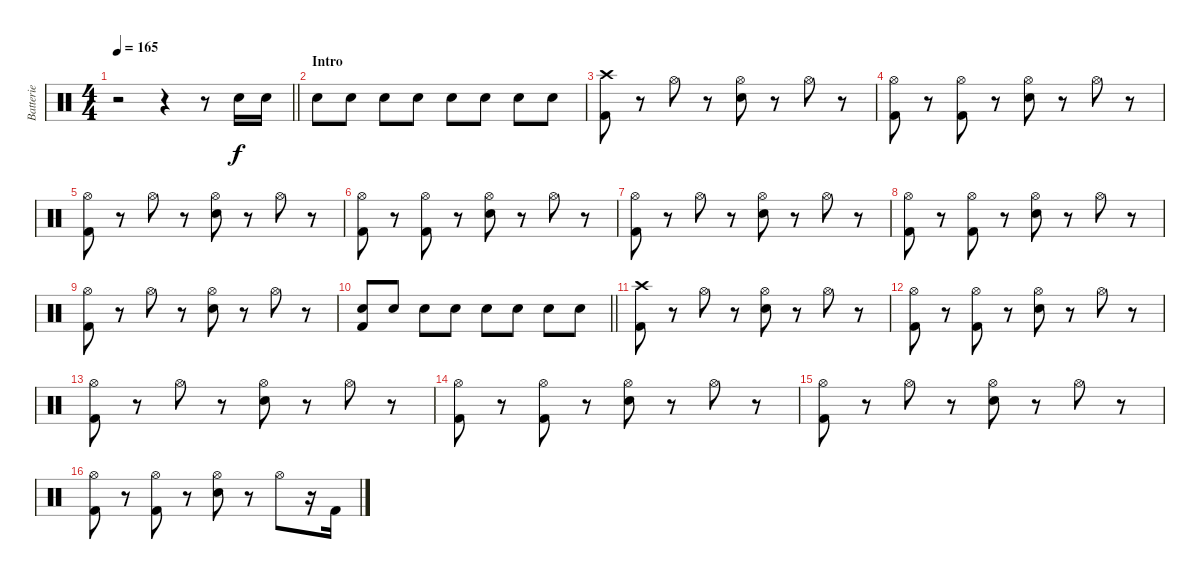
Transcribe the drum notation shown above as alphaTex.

\track ("Batterie" "Batterie") {instrument percussion}
\staff {score}
\articulation defaults
\ts (4 4)
\tempo 165
\clef neutral
\barLineRight lightlight
\ks c
r.2{dy f} r.4 r.8 "Electric Snare (hit)".16 "Electric Snare (hit)".16 |
\section ("" "Intro")
"Electric Snare (hit)".8 "Electric Snare (hit)".8 "Electric Snare (hit)".8 "Electric Snare (hit)".8 "Electric Snare (hit)".8 "Electric Snare (hit)".8 "Electric Snare (hit)".8 "Electric Snare (hit)".8 |
("Crash high (hit)" "Kick (hit) 2").8 r.8 "Hi-Hat (open)".8 r.8 ("Hi-Hat (open)" "Electric Snare (hit)").8 r.8 "Hi-Hat (open)".8 r.8 |
("Hi-Hat (open)" "Kick (hit) 2").8 r.8 ("Hi-Hat (open)" "Kick (hit) 2").8 r.8 ("Hi-Hat (open)" "Electric Snare (hit)").8 r.8 "Hi-Hat (open)".8 r.8 |
("Hi-Hat (open)" "Kick (hit) 2").8 r.8 "Hi-Hat (open)".8 r.8 ("Hi-Hat (open)" "Electric Snare (hit)").8 r.8 "Hi-Hat (open)".8 r.8 |
("Hi-Hat (open)" "Kick (hit) 2").8 r.8 ("Hi-Hat (open)" "Kick (hit) 2").8 r.8 ("Hi-Hat (open)" "Electric Snare (hit)").8 r.8 "Hi-Hat (open)".8 r.8 |
("Hi-Hat (open)" "Kick (hit) 2").8 r.8 "Hi-Hat (open)".8 r.8 ("Hi-Hat (open)" "Electric Snare (hit)").8 r.8 "Hi-Hat (open)".8 r.8 |
("Hi-Hat (open)" "Kick (hit) 2").8 r.8 ("Hi-Hat (open)" "Kick (hit) 2").8 r.8 ("Hi-Hat (open)" "Electric Snare (hit)").8 r.8 "Hi-Hat (open)".8 r.8 |
("Hi-Hat (open)" "Kick (hit) 2").8 r.8 "Hi-Hat (open)".8 r.8 ("Hi-Hat (open)" "Electric Snare (hit)").8 r.8 "Hi-Hat (open)".8 r.8 |
\barLineRight lightlight
("Electric Snare (hit)" "Kick (hit) 2").8 "Electric Snare (hit)".8 "Electric Snare (hit)".8 "Electric Snare (hit)".8 "Electric Snare (hit)".8 "Electric Snare (hit)".8 "Electric Snare (hit)".8 "Electric Snare (hit)".8 |
("Crash high (hit)" "Kick (hit) 2").8 r.8 "Hi-Hat (open)".8 r.8 ("Hi-Hat (open)" "Electric Snare (hit)").8 r.8 "Hi-Hat (open)".8 r.8 |
("Hi-Hat (open)" "Kick (hit) 2").8 r.8 ("Hi-Hat (open)" "Kick (hit) 2").8 r.8 ("Hi-Hat (open)" "Electric Snare (hit)").8 r.8 "Hi-Hat (open)".8 r.8 |
("Hi-Hat (open)" "Kick (hit) 2").8 r.8 "Hi-Hat (open)".8 r.8 ("Hi-Hat (open)" "Electric Snare (hit)").8 r.8 "Hi-Hat (open)".8 r.8 |
("Hi-Hat (open)" "Kick (hit) 2").8 r.8 ("Hi-Hat (open)" "Kick (hit) 2").8 r.8 ("Hi-Hat (open)" "Electric Snare (hit)").8 r.8 "Hi-Hat (open)".8 r.8 |
("Hi-Hat (open)" "Kick (hit) 2").8 r.8 "Hi-Hat (open)".8 r.8 ("Hi-Hat (open)" "Electric Snare (hit)").8 r.8 "Hi-Hat (open)".8 r.8 |
("Hi-Hat (open)" "Kick (hit) 2").8 r.8 ("Hi-Hat (open)" "Kick (hit) 2").8 r.8 ("Hi-Hat (open)" "Electric Snare (hit)").8 r.8 "Hi-Hat (open)".8 r.16 "Kick (hit) 2".16
